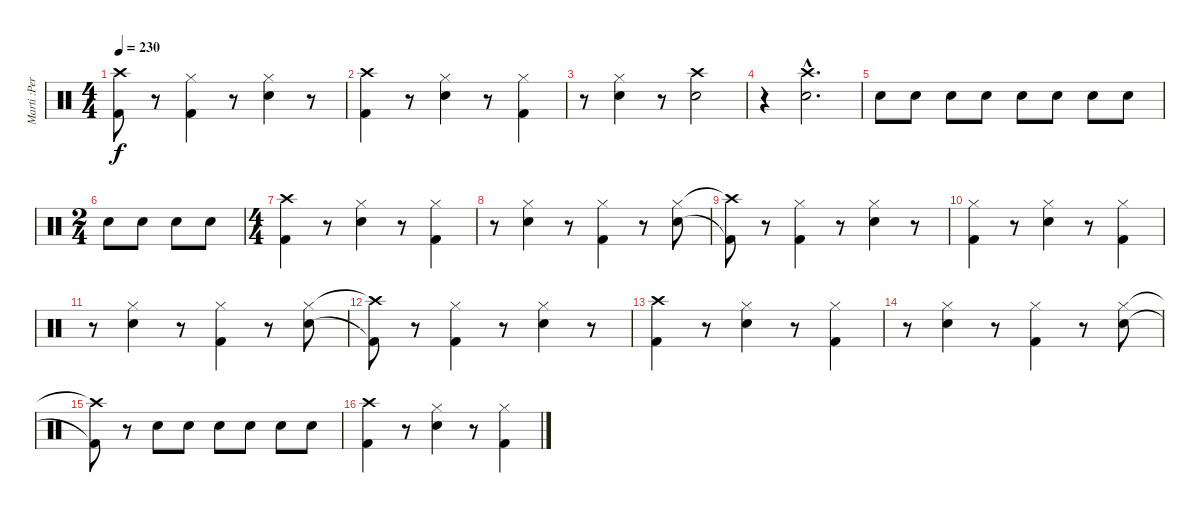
\track ("Marti :Percussion" "Marti :Per") {instrument percussion}
\staff {score}
\articulation defaults
\ts (4 4)
\tempo 230
\clef neutral
\ks c
("Crash high (hit)"{t} "Kick (hit) 2"{t}).8{dy f} r.8 ("Hi-Hat (closed)" "Kick (hit) 2").4 r.8 ("Hi-Hat (closed)" "Snare (hit) 2").4 r.8 |
("Crash high (hit)" "Kick (hit) 2").4 r.8 ("Hi-Hat (closed)" "Snare (hit) 2").4 r.8 ("Hi-Hat (closed)" "Kick (hit) 2").4 |
r.8 ("Hi-Hat (closed)" "Snare (hit) 2").4 r.8 ("Crash high (hit)" "Snare (hit) 2").2 |
r.4 ("Crash high (hit)"{hac} "Snare (hit) 2"{hac}).2{d} |
"Snare (hit) 2".8 "Snare (hit) 2".8 "Snare (hit) 2".8 "Snare (hit) 2".8 "Snare (hit) 2".8 "Snare (hit) 2".8 "Snare (hit) 2".8 "Snare (hit) 2".8 |
\ts (2 4)
"Snare (hit) 2".8 "Snare (hit) 2".8 "Snare (hit) 2".8 "Snare (hit) 2".8 |
\ts (4 4)
("Crash high (hit)" "Kick (hit) 2").4 r.8 ("Hi-Hat (closed)" "Snare (hit) 2").4 r.8 ("Hi-Hat (closed)" "Kick (hit) 2").4 |
r.8 ("Hi-Hat (closed)" "Snare (hit) 2").4 r.8 ("Hi-Hat (closed)" "Kick (hit) 2").4 r.8 ("Hi-Hat (closed)" "Snare (hit) 2").8 |
("Crash high (hit)"{t} "Kick (hit) 2"{t}).8 r.8 ("Hi-Hat (closed)" "Kick (hit) 2").4 r.8 ("Hi-Hat (closed)" "Snare (hit) 2").4 r.8 |
("Hi-Hat (closed)" "Kick (hit) 2").4 r.8 ("Hi-Hat (closed)" "Snare (hit) 2").4 r.8 ("Hi-Hat (closed)" "Kick (hit) 2").4 |
r.8 ("Hi-Hat (closed)" "Snare (hit) 2").4 r.8 ("Hi-Hat (closed)" "Kick (hit) 2").4 r.8 ("Hi-Hat (closed)" "Snare (hit) 2").8 |
("Crash high (hit)"{t} "Kick (hit) 2"{t}).8 r.8 ("Hi-Hat (closed)" "Kick (hit) 2").4 r.8 ("Hi-Hat (closed)" "Snare (hit) 2").4 r.8 |
("Crash high (hit)" "Kick (hit) 2").4 r.8 ("Hi-Hat (closed)" "Snare (hit) 2").4 r.8 ("Hi-Hat (closed)" "Kick (hit) 2").4 |
r.8 ("Hi-Hat (closed)" "Snare (hit) 2").4 r.8 ("Hi-Hat (closed)" "Kick (hit) 2").4 r.8 ("Hi-Hat (closed)" "Snare (hit) 2").8 |
("Crash high (hit)"{t} "Kick (hit) 2"{t}).8 r.8 "Snare (hit) 2".8 "Snare (hit) 2".8 "Snare (hit) 2".8 "Snare (hit) 2".8 "Snare (hit) 2".8 "Snare (hit) 2".8 |
("Crash high (hit)" "Kick (hit) 2").4 r.8 ("Hi-Hat (closed)" "Snare (hit) 2").4 r.8 ("Hi-Hat (closed)" "Kick (hit) 2").4
